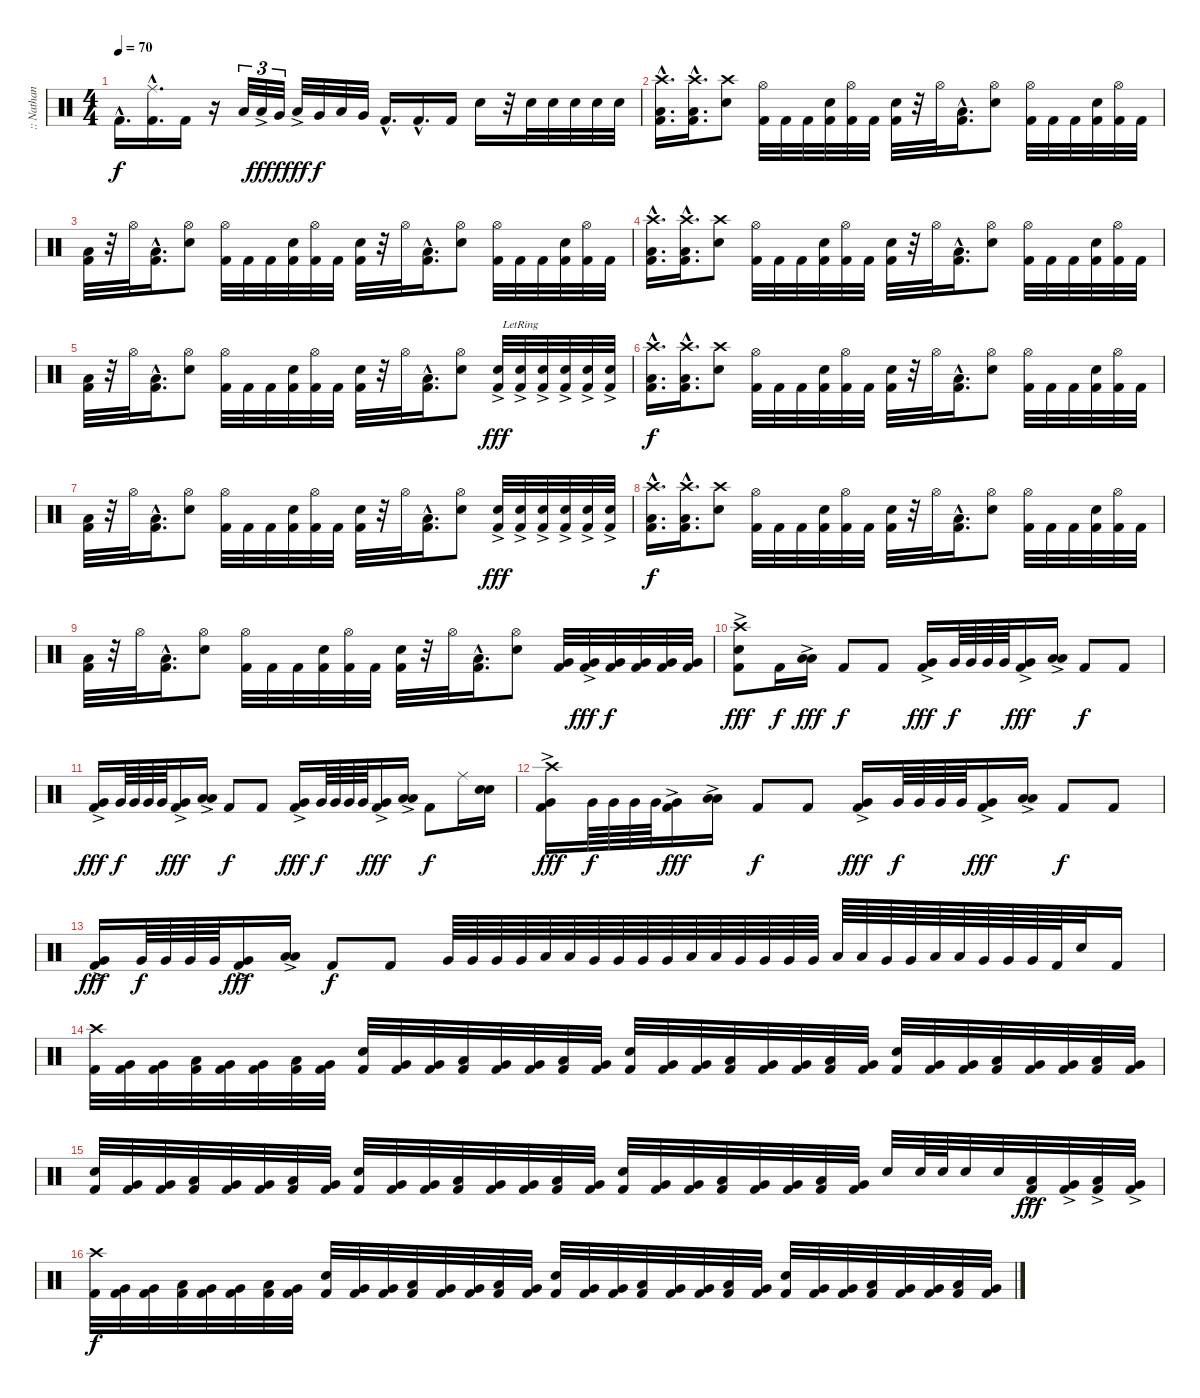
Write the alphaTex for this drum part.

\track (":: Nathan Jonas Jordison #1 ::" ":: Nathan ") {instrument percussion}
\staff {score}
\articulation defaults
\ts (4 4)
\tempo 70
\clef neutral
\ks c "Kick (hit) 2"{hac}.16{d dy f}
("Ride (middle)"{hac} "Kick (hit) 2"{hac}).16{d} "Kick (hit) 2".16 r.16 "Low Floor Tom (hit)".32{tu (3 2)} "Low Floor Tom (hit)"{ac}.32{tu (3 2) dy fff} "Very Low Tom (hit)".32{tu (3 2) dy f} "Low Tom (hit)"{ac}.32{dy fff} "Very Low Tom (hit)".32{dy f} "Low Floor Tom (hit)".32 "Very Low Tom (hit)".32 "Kick (hit) 2"{hac}.16{d} "Kick (hit) 2"{hac}.16{d} "Kick (hit) 2".16 "Electric Snare (hit)".16 r.32 "Electric Snare (hit)".32 "Electric Snare (hit)".32 "Electric Snare (hit)".32 "Electric Snare (hit)".32 "Electric Snare (hit)".32 |
("Crash high (hit)"{hac} "Low Floor Tom (hit)"{hac} "Kick (hit) 2"{hac}).16{d} ("Crash high (hit)"{hac} "Low Floor Tom (hit)"{hac} "Kick (hit) 2"{hac}).16{d} ("Crash high (hit)" "Electric Snare (hit)").8 ("Hi-Hat (open)" "Kick (hit) 2").32 "Kick (hit) 2".32 "Kick (hit) 2".32 ("Electric Snare (hit)" "Kick (hit) 2").32 ("Hi-Hat (open)" "Kick (hit) 2").32 "Kick (hit) 2".32 ("Electric Snare (hit)" "Kick (hit) 2").32 r.32 "Hi-Hat (open)".32 ("Low Floor Tom (hit)"{hac} "Kick (hit) 2"{hac}).16{d} ("Hi-Hat (open)" "Electric Snare (hit)").8 ("Hi-Hat (open)" "Kick (hit) 2").32 "Kick (hit) 2".32 "Kick (hit) 2".32 ("Electric Snare (hit)" "Kick (hit) 2").32 ("Hi-Hat (open)" "Kick (hit) 2").32 "Kick (hit) 2".32 |
("Low Floor Tom (hit)" "Kick (hit) 2").32 r.32 "Hi-Hat (open)".32 ("Low Floor Tom (hit)"{hac} "Kick (hit) 2"{hac}).16{d} ("Hi-Hat (open)" "Electric Snare (hit)").8 ("Hi-Hat (open)" "Kick (hit) 2").32 "Kick (hit) 2".32 "Kick (hit) 2".32 ("Electric Snare (hit)" "Kick (hit) 2").32 ("Hi-Hat (open)" "Kick (hit) 2").32 "Kick (hit) 2".32 ("Electric Snare (hit)" "Kick (hit) 2").32 r.32 "Hi-Hat (open)".32 ("Low Floor Tom (hit)"{hac} "Kick (hit) 2"{hac}).16{d} ("Hi-Hat (open)" "Electric Snare (hit)").8 ("Hi-Hat (open)" "Kick (hit) 2").32 "Kick (hit) 2".32 "Kick (hit) 2".32 ("Electric Snare (hit)" "Kick (hit) 2").32 ("Hi-Hat (open)" "Kick (hit) 2").32 "Kick (hit) 2".32 |
("Crash high (hit)"{hac} "Low Floor Tom (hit)"{hac} "Kick (hit) 2"{hac}).16{d} ("Crash high (hit)"{hac} "Low Floor Tom (hit)"{hac} "Kick (hit) 2"{hac}).16{d} ("Crash high (hit)" "Electric Snare (hit)").8 ("Hi-Hat (open)" "Kick (hit) 2").32 "Kick (hit) 2".32 "Kick (hit) 2".32 ("Electric Snare (hit)" "Kick (hit) 2").32 ("Hi-Hat (open)" "Kick (hit) 2").32 "Kick (hit) 2".32 ("Electric Snare (hit)" "Kick (hit) 2").32 r.32 "Hi-Hat (open)".32 ("Low Floor Tom (hit)"{hac} "Kick (hit) 2"{hac}).16{d} ("Hi-Hat (open)" "Electric Snare (hit)").8 ("Hi-Hat (open)" "Kick (hit) 2").32 "Kick (hit) 2".32 "Kick (hit) 2".32 ("Electric Snare (hit)" "Kick (hit) 2").32 ("Hi-Hat (open)" "Kick (hit) 2").32 "Kick (hit) 2".32 |
("Low Floor Tom (hit)" "Kick (hit) 2").32 r.32 "Hi-Hat (open)".32 ("Low Floor Tom (hit)"{hac} "Kick (hit) 2"{hac}).16{d} ("Hi-Hat (open)" "Electric Snare (hit)").8 ("Hi-Hat (open)" "Kick (hit) 2").32 "Kick (hit) 2".32 "Kick (hit) 2".32 ("Electric Snare (hit)" "Kick (hit) 2").32 ("Hi-Hat (open)" "Kick (hit) 2").32 "Kick (hit) 2".32 ("Electric Snare (hit)" "Kick (hit) 2").32 r.32 "Hi-Hat (open)".32 ("Low Floor Tom (hit)"{hac} "Kick (hit) 2"{hac}).16{d} ("Hi-Hat (open)" "Electric Snare (hit)").8 ("Electric Snare (hit)"{ac} "Kick (hit) 2").32{dy fff} ("Electric Snare (hit)"{ac lr} "Kick (hit) 2").32 ("Electric Snare (hit)"{ac} "Kick (hit) 2").32 ("Electric Snare (hit)"{ac} "Kick (hit) 2").32 ("Electric Snare (hit)"{ac} "Kick (hit) 2").32 ("Electric Snare (hit)"{ac} "Kick (hit) 2").32 |
("Crash high (hit)"{hac} "Low Floor Tom (hit)"{hac} "Kick (hit) 2"{hac}).16{d dy f} ("Crash high (hit)"{hac} "Low Floor Tom (hit)"{hac} "Kick (hit) 2"{hac}).16{d} ("Crash high (hit)" "Electric Snare (hit)").8 ("Hi-Hat (open)" "Kick (hit) 2").32 "Kick (hit) 2".32 "Kick (hit) 2".32 ("Electric Snare (hit)" "Kick (hit) 2").32 ("Hi-Hat (open)" "Kick (hit) 2").32 "Kick (hit) 2".32 ("Electric Snare (hit)" "Kick (hit) 2").32 r.32 "Hi-Hat (open)".32 ("Low Floor Tom (hit)"{hac} "Kick (hit) 2"{hac}).16{d} ("Hi-Hat (open)" "Electric Snare (hit)").8 ("Hi-Hat (open)" "Kick (hit) 2").32 "Kick (hit) 2".32 "Kick (hit) 2".32 ("Electric Snare (hit)" "Kick (hit) 2").32 ("Hi-Hat (open)" "Kick (hit) 2").32 "Kick (hit) 2".32 |
("Low Floor Tom (hit)" "Kick (hit) 2").32 r.32 "Hi-Hat (open)".32 ("Low Floor Tom (hit)"{hac} "Kick (hit) 2"{hac}).16{d} ("Hi-Hat (open)" "Electric Snare (hit)").8 ("Hi-Hat (open)" "Kick (hit) 2").32 "Kick (hit) 2".32 "Kick (hit) 2".32 ("Electric Snare (hit)" "Kick (hit) 2").32 ("Hi-Hat (open)" "Kick (hit) 2").32 "Kick (hit) 2".32 ("Electric Snare (hit)" "Kick (hit) 2").32 r.32 "Hi-Hat (open)".32 ("Low Floor Tom (hit)"{hac} "Kick (hit) 2"{hac}).16{d} ("Hi-Hat (open)" "Electric Snare (hit)").8 ("Electric Snare (hit)"{ac} "Kick (hit) 2").32{dy fff} ("Electric Snare (hit)"{ac} "Kick (hit) 2").32 ("Electric Snare (hit)"{ac} "Kick (hit) 2").32 ("Electric Snare (hit)"{ac} "Kick (hit) 2").32 ("Electric Snare (hit)"{ac} "Kick (hit) 2").32 ("Electric Snare (hit)"{ac} "Kick (hit) 2").32 |
("Crash high (hit)"{hac} "Low Floor Tom (hit)"{hac} "Kick (hit) 2"{hac}).16{d dy f} ("Crash high (hit)"{hac} "Low Floor Tom (hit)"{hac} "Kick (hit) 2"{hac}).16{d} ("Crash high (hit)" "Electric Snare (hit)").8 ("Hi-Hat (open)" "Kick (hit) 2").32 "Kick (hit) 2".32 "Kick (hit) 2".32 ("Electric Snare (hit)" "Kick (hit) 2").32 ("Hi-Hat (open)" "Kick (hit) 2").32 "Kick (hit) 2".32 ("Electric Snare (hit)" "Kick (hit) 2").32 r.32 "Hi-Hat (open)".32 ("Low Floor Tom (hit)"{hac} "Kick (hit) 2"{hac}).16{d} ("Hi-Hat (open)" "Electric Snare (hit)").8 ("Hi-Hat (open)" "Kick (hit) 2").32 "Kick (hit) 2".32 "Kick (hit) 2".32 ("Electric Snare (hit)" "Kick (hit) 2").32 ("Hi-Hat (open)" "Kick (hit) 2").32 "Kick (hit) 2".32 |
("Low Floor Tom (hit)" "Kick (hit) 2").32 r.32 "Hi-Hat (open)".32 ("Low Floor Tom (hit)"{hac} "Kick (hit) 2"{hac}).16{d} ("Hi-Hat (open)" "Electric Snare (hit)").8 ("Hi-Hat (open)" "Kick (hit) 2").32 "Kick (hit) 2".32 "Kick (hit) 2".32 ("Electric Snare (hit)" "Kick (hit) 2").32 ("Hi-Hat (open)" "Kick (hit) 2").32 "Kick (hit) 2".32 ("Electric Snare (hit)" "Kick (hit) 2").32 r.32 "Hi-Hat (open)".32 ("Low Floor Tom (hit)"{hac} "Kick (hit) 2"{hac}).16{d} ("Hi-Hat (open)" "Electric Snare (hit)").8 ("Very Low Tom (hit)" "Kick (hit) 2").32 ("Very Low Tom (hit)"{ac} "Kick (hit) 2").32{dy fff} ("Very Low Tom (hit)" "Kick (hit) 2").32{dy f} ("Very Low Tom (hit)" "Kick (hit) 2").32 ("Very Low Tom (hit)" "Kick (hit) 2").32 ("Very Low Tom (hit)" "Kick (hit) 2").32 |
("Crash high (hit)" "Kick (hit) 2" "Electric Snare (hit)"{ac}).8{dy fff volume 16} "Kick (hit) 2".16{dy f} ("Low Floor Tom (hit)"{ac} "Low Floor Tom (hit)"{ac}).16{dy fff} "Kick (hit) 2".8{dy f} "Kick (hit) 2".8 ("Kick (hit) 2" "Very Low Tom (hit)"{ac}).16{dy fff} "Very Low Tom (hit)".64{dy f} "Very Low Tom (hit)".64 "Very Low Tom (hit)".64 "Very Low Tom (hit)".64 ("Kick (hit) 2" "Very Low Tom (hit)"{ac}).16{dy fff} ("Low Floor Tom (hit)"{ac} "Low Floor Tom (hit)"{ac}).16 "Kick (hit) 2".8{dy f} "Kick (hit) 2".8 |
("Kick (hit) 2" "Very Low Tom (hit)"{ac}).16{dy fff volume 16} "Very Low Tom (hit)".64{dy f} "Very Low Tom (hit)".64 "Very Low Tom (hit)".64 "Very Low Tom (hit)".64 ("Kick (hit) 2" "Very Low Tom (hit)"{ac}).16{dy fff} ("Low Floor Tom (hit)"{ac} "Low Floor Tom (hit)"{ac}).16 "Kick (hit) 2".8{dy f} "Kick (hit) 2".8 ("Kick (hit) 2" "Very Low Tom (hit)"{ac}).16{dy fff} "Very Low Tom (hit)".64{dy f} "Very Low Tom (hit)".64 "Very Low Tom (hit)".64 "Very Low Tom (hit)".64 ("Kick (hit) 2" "Very Low Tom (hit)"{ac}).16{dy fff} ("Low Floor Tom (hit)"{ac} "Low Floor Tom (hit)"{ac}).16 "Kick (hit) 2".8{dy f} "Ride (middle)".16 ("Electric Snare (hit)" "Snare (hit) 2").16 |
("Crash high (hit)" "Kick (hit) 2" "Very Low Tom (hit)"{ac}).16{dy fff volume 16} "Very Low Tom (hit)".64{dy f} "Very Low Tom (hit)".64 "Very Low Tom (hit)".64 "Very Low Tom (hit)".64 ("Kick (hit) 2" "Very Low Tom (hit)"{ac}).16{dy fff} ("Low Floor Tom (hit)"{ac} "Low Floor Tom (hit)"{ac}).16 "Kick (hit) 2".8{dy f} "Kick (hit) 2".8 ("Kick (hit) 2" "Very Low Tom (hit)"{ac}).16{dy fff} "Very Low Tom (hit)".64{dy f} "Very Low Tom (hit)".64 "Very Low Tom (hit)".64 "Very Low Tom (hit)".64 ("Kick (hit) 2" "Very Low Tom (hit)"{ac}).16{dy fff} ("Low Floor Tom (hit)"{ac} "Low Floor Tom (hit)"{ac}).16 "Kick (hit) 2".8{dy f} "Kick (hit) 2".8 |
("Kick (hit) 2" "Very Low Tom (hit)"{ac}).16{dy fff volume 16} "Very Low Tom (hit)".64{dy f} "Very Low Tom (hit)".64 "Very Low Tom (hit)".64 "Very Low Tom (hit)".64 ("Kick (hit) 2" "Very Low Tom (hit)"{ac}).16{dy fff} ("Low Floor Tom (hit)"{ac} "Low Floor Tom (hit)"{ac}).16 "Kick (hit) 2".8{dy f} "Kick (hit) 2".8 "Very Low Tom (hit)".64 "Very Low Tom (hit)".64 "Very Low Tom (hit)".64 "Very Low Tom (hit)".64 "Low Tom (hit)".64 "Low Tom (hit)".64 "Very Low Tom (hit)".64 "Very Low Tom (hit)".64 "Very Low Tom (hit)".64 "Very Low Tom (hit)".64 "Low Tom (hit)".64 "Low Tom (hit)".64 "Very Low Tom (hit)".64 "Very Low Tom (hit)".64 "Very Low Tom (hit)".64 "Very Low Tom (hit)".64 "Low Tom (hit)".64 "Low Tom (hit)".64 "Very Low Tom (hit)".64 "Very Low Tom (hit)".64 "Low Tom (hit)".64 "Low Tom (hit)".64 "Very Low Tom (hit)".64 "Very Low Tom (hit)".64 "Very Low Tom (hit)".64 "Kick (hit) 2".64 "Electric Snare (hit)".32 "Kick (hit) 2".16 |
("Crash high (hit)" "Kick (hit) 2").32 ("Kick (hit) 2" "Very Low Tom (hit)").32 ("Kick (hit) 2" "Very Low Tom (hit)").32 ("Kick (hit) 2" "Low Tom (hit)").32 ("Kick (hit) 2" "Very Low Tom (hit)").32 ("Kick (hit) 2" "Very Low Tom (hit)").32 ("Kick (hit) 2" "Low Tom (hit)").32 ("Kick (hit) 2" "Very Low Tom (hit)").32 ("Electric Snare (hit)" "Kick (hit) 2").32 ("Kick (hit) 2" "Very Low Tom (hit)").32 ("Kick (hit) 2" "Very Low Tom (hit)").32 ("Kick (hit) 2" "Low Tom (hit)").32 ("Kick (hit) 2" "Very Low Tom (hit)").32 ("Kick (hit) 2" "Very Low Tom (hit)").32 ("Kick (hit) 2" "Low Tom (hit)").32 ("Kick (hit) 2" "Very Low Tom (hit)").32 ("Electric Snare (hit)" "Kick (hit) 2").32 ("Kick (hit) 2" "Very Low Tom (hit)").32 ("Kick (hit) 2" "Very Low Tom (hit)").32 ("Kick (hit) 2" "Low Tom (hit)").32 ("Kick (hit) 2" "Very Low Tom (hit)").32 ("Kick (hit) 2" "Very Low Tom (hit)").32 ("Kick (hit) 2" "Low Tom (hit)").32 ("Kick (hit) 2" "Very Low Tom (hit)").32 ("Electric Snare (hit)" "Kick (hit) 2").32 ("Kick (hit) 2" "Very Low Tom (hit)").32 ("Kick (hit) 2" "Very Low Tom (hit)").32 ("Kick (hit) 2" "Low Tom (hit)").32 ("Kick (hit) 2" "Very Low Tom (hit)").32 ("Kick (hit) 2" "Very Low Tom (hit)").32 ("Kick (hit) 2" "Low Tom (hit)").32 ("Kick (hit) 2" "Very Low Tom (hit)").32 |
("Electric Snare (hit)" "Kick (hit) 2").32 ("Kick (hit) 2" "Very Low Tom (hit)").32 ("Kick (hit) 2" "Very Low Tom (hit)").32 ("Kick (hit) 2" "Low Tom (hit)").32 ("Kick (hit) 2" "Very Low Tom (hit)").32 ("Kick (hit) 2" "Very Low Tom (hit)").32 ("Kick (hit) 2" "Low Tom (hit)").32 ("Kick (hit) 2" "Very Low Tom (hit)").32 ("Electric Snare (hit)" "Kick (hit) 2").32 ("Kick (hit) 2" "Very Low Tom (hit)").32 ("Kick (hit) 2" "Very Low Tom (hit)").32 ("Kick (hit) 2" "Low Tom (hit)").32 ("Kick (hit) 2" "Very Low Tom (hit)").32 ("Kick (hit) 2" "Very Low Tom (hit)").32 ("Kick (hit) 2" "Low Tom (hit)").32 ("Kick (hit) 2" "Very Low Tom (hit)").32 ("Electric Snare (hit)" "Kick (hit) 2").32 ("Kick (hit) 2" "Very Low Tom (hit)").32 ("Kick (hit) 2" "Very Low Tom (hit)").32 ("Kick (hit) 2" "Low Tom (hit)").32 ("Kick (hit) 2" "Very Low Tom (hit)").32 ("Kick (hit) 2" "Very Low Tom (hit)").32 ("Kick (hit) 2" "Low Tom (hit)").32 ("Kick (hit) 2" "Very Low Tom (hit)").32 "Electric Snare (hit)".32 "Electric Snare (hit)".64 "Electric Snare (hit)".64 "Electric Snare (hit)".32 "Electric Snare (hit)".32 ("Low Tom (hit)"{ac} "Kick (hit) 2").32{dy fff} ("Very Low Tom (hit)"{ac} "Kick (hit) 2").32 ("Low Tom (hit)"{ac} "Kick (hit) 2").32 ("Very Low Tom (hit)"{ac} "Kick (hit) 2").32 |
("Crash high (hit)" "Kick (hit) 2").32{dy f} ("Kick (hit) 2" "Very Low Tom (hit)").32 ("Kick (hit) 2" "Very Low Tom (hit)").32 ("Kick (hit) 2" "Low Tom (hit)").32 ("Kick (hit) 2" "Very Low Tom (hit)").32 ("Kick (hit) 2" "Very Low Tom (hit)").32 ("Kick (hit) 2" "Low Tom (hit)").32 ("Kick (hit) 2" "Very Low Tom (hit)").32 ("Electric Snare (hit)" "Kick (hit) 2").32 ("Kick (hit) 2" "Very Low Tom (hit)").32 ("Kick (hit) 2" "Very Low Tom (hit)").32 ("Kick (hit) 2" "Low Tom (hit)").32 ("Kick (hit) 2" "Very Low Tom (hit)").32 ("Kick (hit) 2" "Very Low Tom (hit)").32 ("Kick (hit) 2" "Low Tom (hit)").32 ("Kick (hit) 2" "Very Low Tom (hit)").32 ("Electric Snare (hit)" "Kick (hit) 2").32 ("Kick (hit) 2" "Very Low Tom (hit)").32 ("Kick (hit) 2" "Very Low Tom (hit)").32 ("Kick (hit) 2" "Low Tom (hit)").32 ("Kick (hit) 2" "Very Low Tom (hit)").32 ("Kick (hit) 2" "Very Low Tom (hit)").32 ("Kick (hit) 2" "Low Tom (hit)").32 ("Kick (hit) 2" "Very Low Tom (hit)").32 ("Electric Snare (hit)" "Kick (hit) 2").32 ("Kick (hit) 2" "Very Low Tom (hit)").32 ("Kick (hit) 2" "Very Low Tom (hit)").32 ("Kick (hit) 2" "Low Tom (hit)").32 ("Kick (hit) 2" "Very Low Tom (hit)").32 ("Kick (hit) 2" "Very Low Tom (hit)").32 ("Kick (hit) 2" "Low Tom (hit)").32 ("Kick (hit) 2" "Very Low Tom (hit)").32
